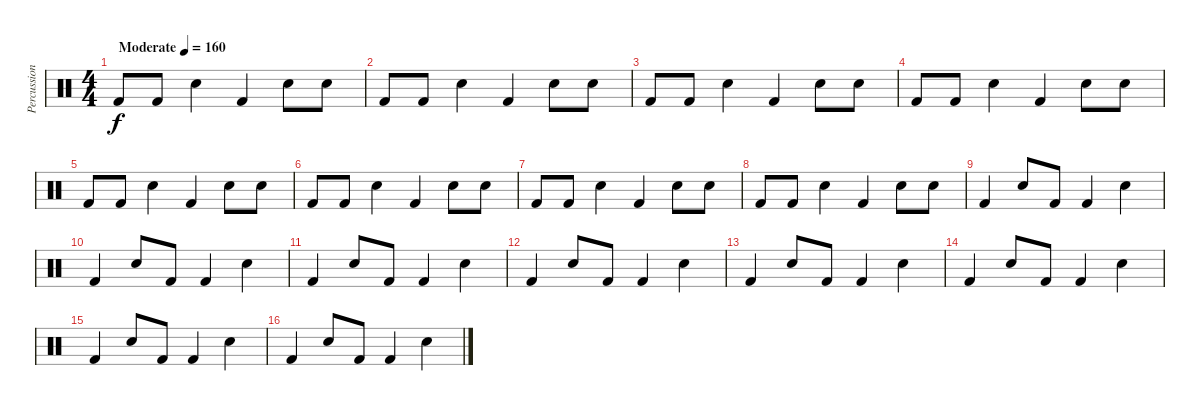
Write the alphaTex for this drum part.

\track ("Percussion" "Percussion") {instrument percussion}
\staff {score}
\articulation defaults
\ts (4 4)
\tempo (160 "Moderate")
\clef neutral
\ks c "Kick (hit) 2".8{dy f} "Kick (hit) 2".8 "Snare (hit) 2".4 "Kick (hit) 2".4 "Snare (hit) 2".8 "Snare (hit) 2".8
|
"Kick (hit) 2".8 "Kick (hit) 2".8 "Snare (hit) 2".4 "Kick (hit) 2".4 "Snare (hit) 2".8 "Snare (hit) 2".8 |
"Kick (hit) 2".8 "Kick (hit) 2".8 "Snare (hit) 2".4 "Kick (hit) 2".4 "Snare (hit) 2".8 "Snare (hit) 2".8 |
"Kick (hit) 2".8 "Kick (hit) 2".8 "Snare (hit) 2".4 "Kick (hit) 2".4 "Snare (hit) 2".8 "Snare (hit) 2".8 |
"Kick (hit) 2".8 "Kick (hit) 2".8 "Snare (hit) 2".4 "Kick (hit) 2".4 "Snare (hit) 2".8 "Snare (hit) 2".8 |
"Kick (hit) 2".8 "Kick (hit) 2".8 "Snare (hit) 2".4 "Kick (hit) 2".4 "Snare (hit) 2".8 "Snare (hit) 2".8 |
"Kick (hit) 2".8 "Kick (hit) 2".8 "Snare (hit) 2".4 "Kick (hit) 2".4 "Snare (hit) 2".8 "Snare (hit) 2".8 |
"Kick (hit) 2".8 "Kick (hit) 2".8 "Snare (hit) 2".4 "Kick (hit) 2".4 "Snare (hit) 2".8 "Snare (hit) 2".8 |
"Kick (hit) 2".4 "Snare (hit) 2".8 "Kick (hit) 2".8 "Kick (hit) 2".4 "Snare (hit) 2".4 |
"Kick (hit) 2".4 "Snare (hit) 2".8 "Kick (hit) 2".8 "Kick (hit) 2".4 "Snare (hit) 2".4 |
"Kick (hit) 2".4 "Snare (hit) 2".8 "Kick (hit) 2".8 "Kick (hit) 2".4 "Snare (hit) 2".4 |
"Kick (hit) 2".4 "Snare (hit) 2".8 "Kick (hit) 2".8 "Kick (hit) 2".4 "Snare (hit) 2".4 |
"Kick (hit) 2".4 "Snare (hit) 2".8 "Kick (hit) 2".8 "Kick (hit) 2".4 "Snare (hit) 2".4 |
"Kick (hit) 2".4 "Snare (hit) 2".8 "Kick (hit) 2".8 "Kick (hit) 2".4 "Snare (hit) 2".4 |
"Kick (hit) 2".4 "Snare (hit) 2".8 "Kick (hit) 2".8 "Kick (hit) 2".4 "Snare (hit) 2".4 |
"Kick (hit) 2".4 "Snare (hit) 2".8 "Kick (hit) 2".8 "Kick (hit) 2".4 "Snare (hit) 2".4
